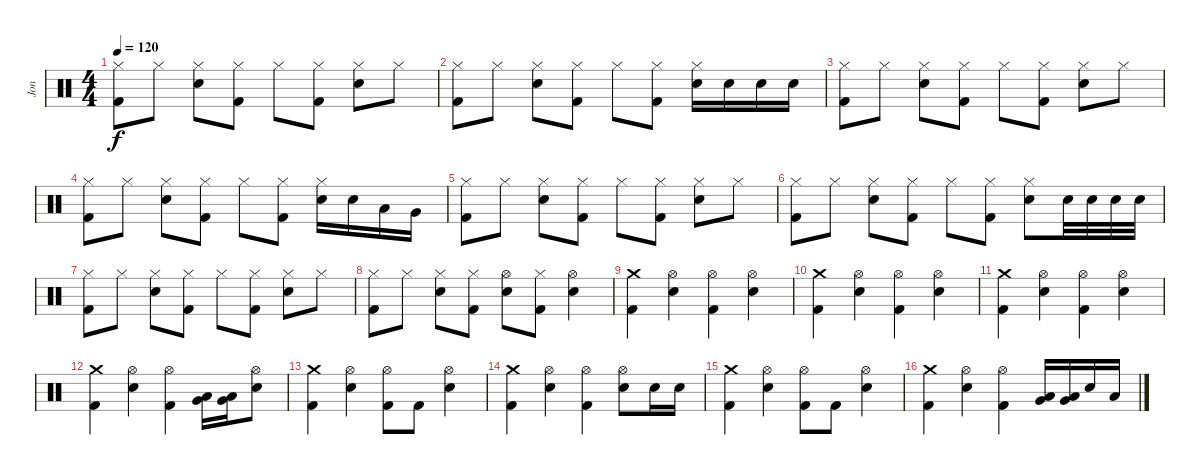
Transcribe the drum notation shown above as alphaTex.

\track ("Jon" "Jon") {instrument percussion}
\staff {score}
\articulation defaults
\ts (4 4)
\tempo 120
\clef neutral
\ks c
("Hi-Hat (closed)" "Kick (hit) 2").8{dy f} "Hi-Hat (closed)".8 ("Hi-Hat (closed)" "Snare (hit) 2").8 ("Hi-Hat (closed)" "Kick (hit) 2").8 "Hi-Hat (closed)".8 ("Hi-Hat (closed)" "Kick (hit) 2").8 ("Hi-Hat (closed)" "Snare (hit) 2").8 "Hi-Hat (closed)".8 |
("Hi-Hat (closed)" "Kick (hit) 2").8 "Hi-Hat (closed)".8 ("Hi-Hat (closed)" "Snare (hit) 2").8 ("Hi-Hat (closed)" "Kick (hit) 2").8 "Hi-Hat (closed)".8 ("Hi-Hat (closed)" "Kick (hit) 2").8 ("Hi-Hat (closed)" "Snare (hit) 2").16 "Snare (hit) 2".16 "Snare (hit) 2".16 "Snare (hit) 2".16 |
("Hi-Hat (closed)" "Kick (hit) 2").8 "Hi-Hat (closed)".8 ("Hi-Hat (closed)" "Snare (hit) 2").8 ("Hi-Hat (closed)" "Kick (hit) 2").8 "Hi-Hat (closed)".8 ("Hi-Hat (closed)" "Kick (hit) 2").8 ("Hi-Hat (closed)" "Snare (hit) 2").8 "Hi-Hat (closed)".8 |
("Hi-Hat (closed)" "Kick (hit) 2").8 "Hi-Hat (closed)".8 ("Hi-Hat (closed)" "Snare (hit) 2").8 ("Hi-Hat (closed)" "Kick (hit) 2").8 "Hi-Hat (closed)".8 ("Hi-Hat (closed)" "Kick (hit) 2").8 ("Hi-Hat (closed)" "Snare (hit) 2").16 "Snare (hit) 2".16 "Low Tom (hit)".16 "Very Low Tom (hit)".16 |
("Hi-Hat (closed)" "Kick (hit) 2").8 "Hi-Hat (closed)".8 ("Hi-Hat (closed)" "Snare (hit) 2").8 ("Hi-Hat (closed)" "Kick (hit) 2").8 "Hi-Hat (closed)".8 ("Hi-Hat (closed)" "Kick (hit) 2").8 ("Hi-Hat (closed)" "Snare (hit) 2").8 "Hi-Hat (closed)".8 |
("Hi-Hat (closed)" "Kick (hit) 2").8 "Hi-Hat (closed)".8 ("Hi-Hat (closed)" "Snare (hit) 2").8 ("Hi-Hat (closed)" "Kick (hit) 2").8 "Hi-Hat (closed)".8 ("Hi-Hat (closed)" "Kick (hit) 2").8 ("Hi-Hat (closed)" "Snare (hit) 2").8 "Snare (hit) 2".32 "Snare (hit) 2".32 "Snare (hit) 2".32 "Snare (hit) 2".32 |
("Hi-Hat (closed)" "Kick (hit) 2").8 "Hi-Hat (closed)".8 ("Hi-Hat (closed)" "Snare (hit) 2").8 ("Hi-Hat (closed)" "Kick (hit) 2").8 "Hi-Hat (closed)".8 ("Hi-Hat (closed)" "Kick (hit) 2").8 ("Hi-Hat (closed)" "Snare (hit) 2").8 "Hi-Hat (closed)".8 |
("Hi-Hat (closed)" "Kick (hit) 2").8 "Hi-Hat (closed)".8 ("Hi-Hat (closed)" "Snare (hit) 2").8 ("Hi-Hat (closed)" "Kick (hit) 2").8 ("Hi-Hat (open)" "Snare (hit) 2").8 ("Hi-Hat (closed)" "Kick (hit) 2").8 ("Hi-Hat (open)" "Snare (hit) 2").4 |
("Crash medium (hit)" "Kick (hit) 2").4 ("Hi-Hat (open)" "Snare (hit) 2").4 ("Hi-Hat (open)" "Kick (hit) 2").4 ("Hi-Hat (open)" "Snare (hit) 2").4 |
("Crash medium (hit)" "Kick (hit) 2").4 ("Hi-Hat (open)" "Snare (hit) 2").4 ("Hi-Hat (open)" "Kick (hit) 2").4 ("Hi-Hat (open)" "Snare (hit) 2").4 |
("Crash medium (hit)" "Kick (hit) 2").4 ("Hi-Hat (open)" "Snare (hit) 2").4 ("Hi-Hat (open)" "Kick (hit) 2").4 ("Hi-Hat (open)" "Snare (hit) 2").4 |
("Crash medium (hit)" "Kick (hit) 2").4 ("Hi-Hat (open)" "Snare (hit) 2").4 ("Hi-Hat (open)" "Kick (hit) 2").4 ("Low Tom (hit)" "Very Low Tom (hit)").16 ("Very Low Tom (hit)" "Low Floor Tom (hit)").16 ("Hi-Hat (open)" "Snare (hit) 2").8 |
("Crash medium (hit)" "Kick (hit) 2").4 ("Hi-Hat (open)" "Snare (hit) 2").4 ("Hi-Hat (open)" "Kick (hit) 2").8 "Kick (hit) 2".8 ("Hi-Hat (open)" "Snare (hit) 2").4 |
("Crash medium (hit)" "Kick (hit) 2").4 ("Hi-Hat (open)" "Snare (hit) 2").4 ("Hi-Hat (open)" "Kick (hit) 2").4 ("Hi-Hat (open)" "Snare (hit) 2").8 "Snare (hit) 2".16 "Snare (hit) 2".16 |
("Crash medium (hit)" "Kick (hit) 2").4 ("Hi-Hat (open)" "Snare (hit) 2").4 ("Hi-Hat (open)" "Kick (hit) 2").8 "Kick (hit) 2".8 ("Hi-Hat (open)" "Snare (hit) 2").4 |
("Crash medium (hit)" "Kick (hit) 2").4 ("Hi-Hat (open)" "Snare (hit) 2").4 ("Hi-Hat (open)" "Kick (hit) 2").4 ("Low Tom (hit)" "Very Low Tom (hit)").16 ("Very Low Tom (hit)" "Low Floor Tom (hit)").16 "Snare (hit) 2".16 "Low Floor Tom (hit)".16
